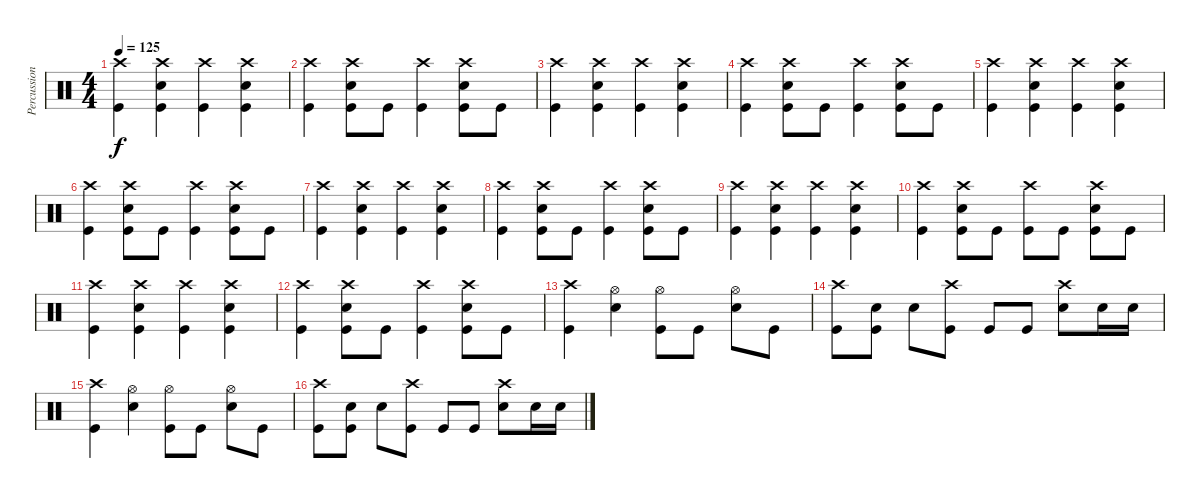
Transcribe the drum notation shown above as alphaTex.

\track ("Percussion" "Percussion") {instrument percussion}
\staff {score}
\articulation defaults
\ts (4 4)
\tempo 125
\clef neutral
\ks c
("Crash high (hit)" "Kick (hit)").4{dy f} ("Crash high (hit)" "Electric Snare (hit)" "Kick (hit)").4 ("Crash high (hit)" "Kick (hit)").4 ("Crash high (hit)" "Electric Snare (hit)" "Kick (hit)").4 |
("Crash high (hit)" "Kick (hit)").4 ("Crash high (hit)" "Electric Snare (hit)" "Kick (hit)").8 "Kick (hit)".8 ("Crash high (hit)" "Kick (hit)").4 ("Crash high (hit)" "Electric Snare (hit)" "Kick (hit)").8 "Kick (hit)".8 |
("Crash high (hit)" "Kick (hit)").4 ("Crash high (hit)" "Electric Snare (hit)" "Kick (hit)").4 ("Crash high (hit)" "Kick (hit)").4 ("Crash high (hit)" "Electric Snare (hit)" "Kick (hit)").4 |
("Crash high (hit)" "Kick (hit)").4 ("Crash high (hit)" "Electric Snare (hit)" "Kick (hit)").8 "Kick (hit)".8 ("Crash high (hit)" "Kick (hit)").4 ("Crash high (hit)" "Electric Snare (hit)" "Kick (hit)").8 "Kick (hit)".8 |
("Crash high (hit)" "Kick (hit)").4 ("Crash high (hit)" "Electric Snare (hit)" "Kick (hit)").4 ("Crash high (hit)" "Kick (hit)").4 ("Crash high (hit)" "Electric Snare (hit)" "Kick (hit)").4 |
("Crash high (hit)" "Kick (hit)").4 ("Crash high (hit)" "Electric Snare (hit)" "Kick (hit)").8 "Kick (hit)".8 ("Crash high (hit)" "Kick (hit)").4 ("Crash high (hit)" "Electric Snare (hit)" "Kick (hit)").8 "Kick (hit)".8 |
("Crash high (hit)" "Kick (hit)").4 ("Crash high (hit)" "Electric Snare (hit)" "Kick (hit)").4 ("Crash high (hit)" "Kick (hit)").4 ("Crash high (hit)" "Electric Snare (hit)" "Kick (hit)").4 |
("Crash high (hit)" "Kick (hit)").4 ("Crash high (hit)" "Electric Snare (hit)" "Kick (hit)").8 "Kick (hit)".8 ("Crash high (hit)" "Kick (hit)").4 ("Crash high (hit)" "Electric Snare (hit)" "Kick (hit)").8 "Kick (hit)".8 |
("Crash high (hit)" "Kick (hit)").4 ("Crash high (hit)" "Electric Snare (hit)" "Kick (hit)").4 ("Crash high (hit)" "Kick (hit)").4 ("Crash high (hit)" "Electric Snare (hit)" "Kick (hit)").4 |
("Crash high (hit)" "Kick (hit)").4 ("Crash high (hit)" "Electric Snare (hit)" "Kick (hit)").8 "Kick (hit)".8 ("Crash high (hit)" "Kick (hit)").8 "Kick (hit)".8 ("Crash high (hit)" "Electric Snare (hit)" "Kick (hit)").8 "Kick (hit)".8 |
("Crash high (hit)" "Kick (hit)").4 ("Crash high (hit)" "Electric Snare (hit)" "Kick (hit)").4 ("Crash high (hit)" "Kick (hit)").4 ("Crash high (hit)" "Electric Snare (hit)" "Kick (hit)").4 |
("Crash high (hit)" "Kick (hit)").4 ("Crash high (hit)" "Electric Snare (hit)" "Kick (hit)").8 "Kick (hit)".8 ("Crash high (hit)" "Kick (hit)").4 ("Crash high (hit)" "Electric Snare (hit)" "Kick (hit)").8 "Kick (hit)".8 |
("Crash high (hit)" "Kick (hit)").4 ("Hi-Hat (open)" "Electric Snare (hit)").4 ("Hi-Hat (open)" "Kick (hit)").8 "Kick (hit)".8 ("Hi-Hat (open)" "Electric Snare (hit)").8 "Kick (hit)".8 |
("Crash high (hit)" "Kick (hit)").8 ("Electric Snare (hit)" "Kick (hit)").8 "Electric Snare (hit)".8 ("Crash high (hit)" "Kick (hit)").8 "Kick (hit)".8 "Kick (hit)".8 ("Crash high (hit)" "Electric Snare (hit)").8 "Electric Snare (hit)".16 "Electric Snare (hit)".16 |
("Crash high (hit)" "Kick (hit)").4 ("Hi-Hat (open)" "Electric Snare (hit)").4 ("Hi-Hat (open)" "Kick (hit)").8 "Kick (hit)".8 ("Hi-Hat (open)" "Electric Snare (hit)").8 "Kick (hit)".8 |
("Crash high (hit)" "Kick (hit)").8 ("Electric Snare (hit)" "Kick (hit)").8 "Electric Snare (hit)".8 ("Crash high (hit)" "Kick (hit)").8 "Kick (hit)".8 "Kick (hit)".8 ("Crash high (hit)" "Electric Snare (hit)").8 "Electric Snare (hit)".16 "Electric Snare (hit)".16
